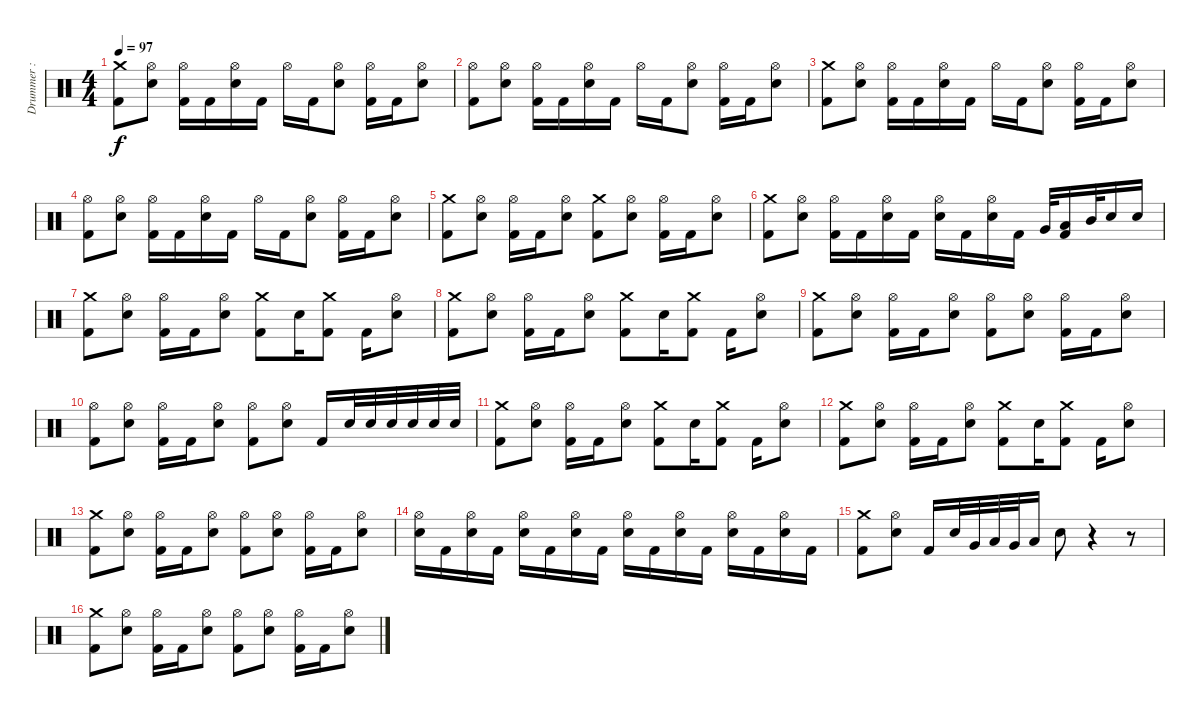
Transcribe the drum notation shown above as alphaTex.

\track ("Drummer : Tainaka Ritsu - Tan" "Drummer : ") {instrument percussion}
\staff {score}
\articulation defaults
\ts (4 4)
\tempo 97
\clef neutral
\ks c
("Crash medium (hit)" "Kick (hit) 2").8{dy f} ("Hi-Hat (open)" "Electric Snare (hit)").8 ("Hi-Hat (open)" "Kick (hit) 2").16 "Kick (hit) 2".16 ("Hi-Hat (open)" "Electric Snare (hit)").16 "Kick (hit) 2".16 "Hi-Hat (open)".16 "Kick (hit) 2".16 ("Hi-Hat (open)" "Electric Snare (hit)").8 ("Hi-Hat (open)" "Kick (hit) 2").16 "Kick (hit) 2".16 ("Hi-Hat (open)" "Electric Snare (hit)").8 |
("Hi-Hat (open)" "Kick (hit) 2").8 ("Hi-Hat (open)" "Electric Snare (hit)").8 ("Hi-Hat (open)" "Kick (hit) 2").16 "Kick (hit) 2".16 ("Hi-Hat (open)" "Electric Snare (hit)").16 "Kick (hit) 2".16 "Hi-Hat (open)".16 "Kick (hit) 2".16 ("Hi-Hat (open)" "Electric Snare (hit)").8 ("Hi-Hat (open)" "Kick (hit) 2").16 "Kick (hit) 2".16 ("Hi-Hat (open)" "Electric Snare (hit)").8 |
("Crash medium (hit)" "Kick (hit) 2").8 ("Hi-Hat (open)" "Electric Snare (hit)").8 ("Hi-Hat (open)" "Kick (hit) 2").16 "Kick (hit) 2".16 ("Hi-Hat (open)" "Electric Snare (hit)").16 "Kick (hit) 2".16 "Hi-Hat (open)".16 "Kick (hit) 2".16 ("Hi-Hat (open)" "Electric Snare (hit)").8 ("Hi-Hat (open)" "Kick (hit) 2").16 "Kick (hit) 2".16 ("Hi-Hat (open)" "Electric Snare (hit)").8 |
("Hi-Hat (open)" "Kick (hit) 2").8 ("Hi-Hat (open)" "Electric Snare (hit)").8 ("Hi-Hat (open)" "Kick (hit) 2").16 "Kick (hit) 2".16 ("Hi-Hat (open)" "Electric Snare (hit)").16 "Kick (hit) 2".16 "Hi-Hat (open)".16 "Kick (hit) 2".16 ("Hi-Hat (open)" "Electric Snare (hit)").8 ("Hi-Hat (open)" "Kick (hit) 2").16 "Kick (hit) 2".16 ("Hi-Hat (open)" "Electric Snare (hit)").8 |
("Crash medium (hit)" "Kick (hit) 2").8 ("Hi-Hat (open)" "Electric Snare (hit)").8 ("Hi-Hat (open)" "Kick (hit) 2").16 "Kick (hit) 2".16 ("Hi-Hat (open)" "Electric Snare (hit)").8 ("Crash medium (hit)" "Kick (hit) 2").8 ("Hi-Hat (open)" "Electric Snare (hit)").8 ("Hi-Hat (open)" "Kick (hit) 2").16 "Kick (hit) 2".16 ("Hi-Hat (open)" "Electric Snare (hit)").8 |
("Crash medium (hit)" "Kick (hit) 2").8 ("Hi-Hat (open)" "Electric Snare (hit)").8 ("Hi-Hat (open)" "Kick (hit) 2").16 "Kick (hit) 2".16 ("Hi-Hat (open)" "Electric Snare (hit)").16 "Kick (hit) 2".16 ("Hi-Hat (open)" "Electric Snare (hit)").16 "Kick (hit) 2".16 ("Hi-Hat (open)" "Electric Snare (hit)").16 "Kick (hit) 2".16 "Very Low Tom (hit)".32 ("Low Tom (hit)" "Kick (hit) 2").16 "Mid Tom (hit)".32 "Electric Snare (hit)".16 "Electric Snare (hit)".16 |
("Crash medium (hit)" "Kick (hit) 2").8 ("Hi-Hat (open)" "Electric Snare (hit)").8 ("Hi-Hat (open)" "Kick (hit) 2").16 "Kick (hit) 2".16 ("Hi-Hat (open)" "Electric Snare (hit)").8 ("Crash medium (hit)" "Kick (hit) 2").8 "Electric Snare (hit)".16 ("Crash medium (hit)" "Kick (hit) 2").8 "Kick (hit) 2".16 ("Hi-Hat (open)" "Electric Snare (hit)").8 |
("Crash medium (hit)" "Kick (hit) 2").8 ("Hi-Hat (open)" "Electric Snare (hit)").8 ("Hi-Hat (open)" "Kick (hit) 2").16 "Kick (hit) 2".16 ("Hi-Hat (open)" "Electric Snare (hit)").8 ("Crash medium (hit)" "Kick (hit) 2").8 "Electric Snare (hit)".16 ("Crash medium (hit)" "Kick (hit) 2").8 "Kick (hit) 2".16 ("Hi-Hat (open)" "Electric Snare (hit)").8 |
("Crash medium (hit)" "Kick (hit) 2").8 ("Hi-Hat (open)" "Electric Snare (hit)").8 ("Hi-Hat (open)" "Kick (hit) 2").16 "Kick (hit) 2".16 ("Hi-Hat (open)" "Electric Snare (hit)").8 ("Hi-Hat (open)" "Kick (hit) 2").8 ("Hi-Hat (open)" "Electric Snare (hit)").8 ("Hi-Hat (open)" "Kick (hit) 2").16 "Kick (hit) 2".16 ("Hi-Hat (open)" "Electric Snare (hit)").8 |
("Hi-Hat (open)" "Kick (hit) 2").8 ("Hi-Hat (open)" "Electric Snare (hit)").8 ("Hi-Hat (open)" "Kick (hit) 2").16 "Kick (hit) 2".16 ("Hi-Hat (open)" "Electric Snare (hit)").8 ("Hi-Hat (open)" "Kick (hit) 2").8 ("Hi-Hat (open)" "Electric Snare (hit)").8 "Kick (hit) 2".16 "Electric Snare (hit)".32 "Electric Snare (hit)".32 "Electric Snare (hit)".32 "Electric Snare (hit)".32 "Electric Snare (hit)".32 "Electric Snare (hit)".32 |
("Crash medium (hit)" "Kick (hit) 2").8 ("Hi-Hat (open)" "Electric Snare (hit)").8 ("Hi-Hat (open)" "Kick (hit) 2").16 "Kick (hit) 2".16 ("Hi-Hat (open)" "Electric Snare (hit)").8 ("Crash medium (hit)" "Kick (hit) 2").8 "Electric Snare (hit)".16 ("Crash medium (hit)" "Kick (hit) 2").8 "Kick (hit) 2".16 ("Hi-Hat (open)" "Electric Snare (hit)").8 |
("Crash medium (hit)" "Kick (hit) 2").8 ("Hi-Hat (open)" "Electric Snare (hit)").8 ("Hi-Hat (open)" "Kick (hit) 2").16 "Kick (hit) 2".16 ("Hi-Hat (open)" "Electric Snare (hit)").8 ("Crash medium (hit)" "Kick (hit) 2").8 "Electric Snare (hit)".16 ("Crash medium (hit)" "Kick (hit) 2").8 "Kick (hit) 2".16 ("Hi-Hat (open)" "Electric Snare (hit)").8 |
("Crash medium (hit)" "Kick (hit) 2").8 ("Hi-Hat (open)" "Electric Snare (hit)").8 ("Hi-Hat (open)" "Kick (hit) 2").16 "Kick (hit) 2".16 ("Hi-Hat (open)" "Electric Snare (hit)").8 ("Hi-Hat (open)" "Kick (hit) 2").8 ("Hi-Hat (open)" "Electric Snare (hit)").8 ("Hi-Hat (open)" "Kick (hit) 2").16 "Kick (hit) 2".16 ("Hi-Hat (open)" "Electric Snare (hit)").8 |
("Hi-Hat (open)" "Electric Snare (hit)").16 "Kick (hit) 2".16 ("Hi-Hat (open)" "Electric Snare (hit)").16 "Kick (hit) 2".16 ("Hi-Hat (open)" "Electric Snare (hit)").16 "Kick (hit) 2".16 ("Hi-Hat (open)" "Electric Snare (hit)").16 "Kick (hit) 2".16 ("Hi-Hat (open)" "Electric Snare (hit)").16 "Kick (hit) 2".16 ("Hi-Hat (open)" "Electric Snare (hit)").16 "Kick (hit) 2".16 ("Hi-Hat (open)" "Electric Snare (hit)").16 "Kick (hit) 2".16 ("Hi-Hat (open)" "Electric Snare (hit)").16 "Kick (hit) 2".16 |
("Crash medium (hit)" "Kick (hit) 2").8 ("Hi-Hat (open)" "Electric Snare (hit)").8 "Kick (hit) 2".16 "Electric Snare (hit)".32 "Very Low Tom (hit)".32 "Low Tom (hit)".32 "Very Low Tom (hit)".32 "Low Floor Tom (hit)".16 "Electric Snare (hit)".8 r.4 r.8 |
("Crash medium (hit)" "Kick (hit) 2").8 ("Hi-Hat (open)" "Electric Snare (hit)").8 ("Hi-Hat (open)" "Kick (hit) 2").16 "Kick (hit) 2".16 ("Hi-Hat (open)" "Electric Snare (hit)").8 ("Hi-Hat (open)" "Kick (hit) 2").8 ("Hi-Hat (open)" "Electric Snare (hit)").8 ("Hi-Hat (open)" "Kick (hit) 2").16 "Kick (hit) 2".16 ("Hi-Hat (open)" "Electric Snare (hit)").8
